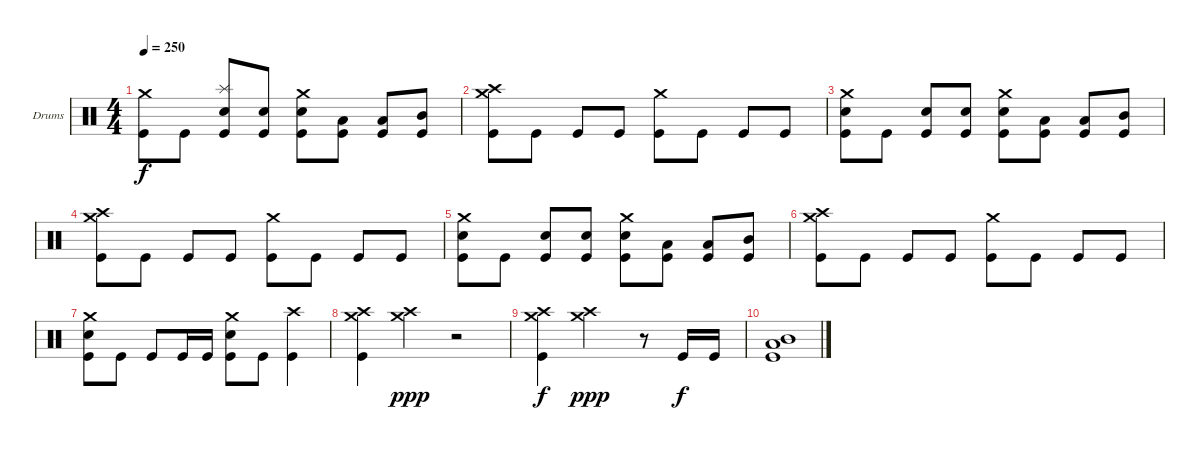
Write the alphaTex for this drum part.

\bracketExtendMode groupsimilarinstruments
\firstSystemTrackNameOrientation horizontal
\otherSystemsTrackNameOrientation horizontal
\track ("Drumkit" "Drums") {instrument percussion}
\staff {score}
\articulation defaults
\ts (4 4)
\tempo 250
\clef neutral
\ks c
("Crash medium (hit)" "Kick (hit)").8{dy f} "Kick (hit)".8 ("Splash (hit)" "Snare (hit) 2" "Kick (hit)").8 ("Snare (hit) 2" "Kick (hit)").8 ("Crash medium (hit)" "Snare (hit) 2" "Kick (hit)").8 ("Low Tom (hit)" "Kick (hit)").8 ("Low Tom (hit)" "Kick (hit)").8 ("Mid Tom (hit)" "Kick (hit)").8 |
("Crash high (hit)" "Crash medium (hit)" "Kick (hit)").8 "Kick (hit)".8 "Kick (hit)".8 "Kick (hit)".8 ("Crash medium (hit)" "Kick (hit)").8 "Kick (hit)".8 "Kick (hit)".8 "Kick (hit)".8 |
("Crash medium (hit)" "Snare (hit) 2" "Kick (hit)").8 "Kick (hit)".8 ("Snare (hit) 2" "Kick (hit)").8 ("Snare (hit) 2" "Kick (hit)").8 ("Crash medium (hit)" "Snare (hit) 2" "Kick (hit)").8 ("Low Tom (hit)" "Kick (hit)").8 ("Low Tom (hit)" "Kick (hit)").8 ("Mid Tom (hit)" "Kick (hit)").8 |
("Crash high (hit)" "Crash medium (hit)" "Kick (hit)").8 "Kick (hit)".8 "Kick (hit)".8 "Kick (hit)".8 ("Crash medium (hit)" "Kick (hit)").8 "Kick (hit)".8 "Kick (hit)".8 "Kick (hit)".8 |
("Crash medium (hit)" "Snare (hit) 2" "Kick (hit)").8 "Kick (hit)".8 ("Snare (hit) 2" "Kick (hit)").8 ("Snare (hit) 2" "Kick (hit)").8 ("Crash medium (hit)" "Snare (hit) 2" "Kick (hit)").8 ("Low Tom (hit)" "Kick (hit)").8 ("Low Tom (hit)" "Kick (hit)").8 ("Mid Tom (hit)" "Kick (hit)").8 |
("Crash high (hit)" "Crash medium (hit)" "Kick (hit)").8 "Kick (hit)".8 "Kick (hit)".8 "Kick (hit)".8 ("Crash medium (hit)" "Kick (hit)").8 "Kick (hit)".8 "Kick (hit)".8 "Kick (hit)".8 |
("Crash medium (hit)" "Snare (hit) 2" "Kick (hit)").8 "Kick (hit)".8 "Kick (hit)".8 "Kick (hit)".16 "Kick (hit)".16 ("Crash medium (hit)" "Snare (hit) 2" "Kick (hit)").8 "Kick (hit)".8 ("Crash high (hit)" "Kick (hit)").4 |
("Crash high (hit)" "Crash medium (hit)" "Kick (hit)").4 ("Crash high (hit)" "Crash medium (hit)").4{dy ppp} r.2 |
("Crash high (hit)" "Crash medium (hit)" "Kick (hit)").4{dy f} ("Crash high (hit)" "Crash medium (hit)").2{dy ppp} r.8 "Kick (hit)".16{dy f} "Kick (hit)".16 |
("Mid Tom (hit)" "Low Tom (hit)" "Kick (hit)").1
